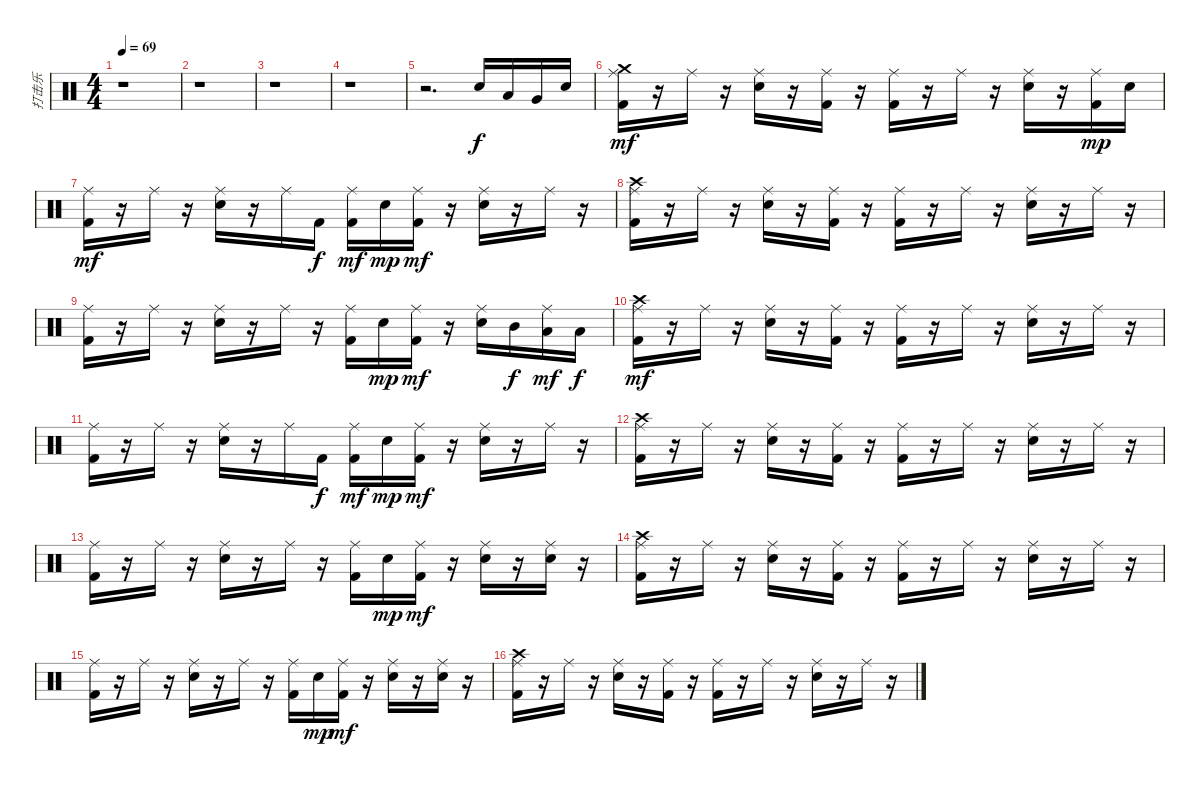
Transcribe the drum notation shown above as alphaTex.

\track ("打击乐" "打击乐") {instrument percussion}
\staff {score}
\articulation defaults
\ts (4 4)
\tempo 69
\clef neutral
\ks c
r.1{dy f} |
r.1 |
r.1 |
r.1 |
r.2{d} "Electric Snare (hit)".16 "Low Tom (hit)".16 "Very Low Tom (hit)".16 "Electric Snare (hit)".16 |
("Ride (middle)" "Crash medium (hit)" "Kick (hit) 2").16{dy mf} r.16 "Ride (middle)".16 r.16 ("Ride (middle)" "Electric Snare (hit)").16 r.16 ("Ride (middle)" "Kick (hit) 2").16 r.16 ("Ride (middle)" "Kick (hit) 2").16 r.16 "Ride (middle)".16 r.16 ("Ride (middle)" "Electric Snare (hit)").16 r.16 ("Ride (middle)" "Kick (hit) 2").16{dy mp} "Electric Snare (hit)".16 |
("Kick (hit) 2" "Ride (middle)").16{dy mf} r.16 "Ride (middle)".16 r.16 ("Electric Snare (hit)" "Ride (middle)").16 r.16 "Ride (middle)".16 "Kick (hit) 2".16{dy f} ("Kick (hit) 2" "Ride (middle)").16{dy mf} "Electric Snare (hit)".16{dy mp} ("Kick (hit) 2" "Ride (middle)").16{dy mf} r.16 ("Electric Snare (hit)" "Ride (middle)").16 r.16 "Ride (middle)".16 r.16 |
("Crash high (hit)" "Kick (hit) 2" "Ride (middle)").16 r.16 "Ride (middle)".16 r.16 ("Electric Snare (hit)" "Ride (middle)").16 r.16 ("Kick (hit) 2" "Ride (middle)").16 r.16 ("Kick (hit) 2" "Ride (middle)").16 r.16 "Ride (middle)".16 r.16 ("Electric Snare (hit)" "Ride (middle)").16 r.16 "Ride (middle)".16 r.16 |
("Kick (hit) 2" "Ride (middle)").16 r.16 "Ride (middle)".16 r.16 ("Electric Snare (hit)" "Ride (middle)").16 r.16 "Ride (middle)".16 r.16 ("Kick (hit) 2" "Ride (middle)").16 "Electric Snare (hit)".16{dy mp} ("Kick (hit) 2" "Ride (middle)").16{dy mf} r.16 ("Electric Snare (hit)" "Ride (middle)").16 "Mid Tom (hit)".16{dy f} ("Low Tom (hit)" "Ride (middle)").16{dy mf} "Low Floor Tom (hit)".16{dy f} |
("Crash high (hit)" "Ride (middle)" "Kick (hit) 2").16{dy mf} r.16 "Ride (middle)".16 r.16 ("Ride (middle)" "Electric Snare (hit)").16 r.16 ("Ride (middle)" "Kick (hit) 2").16 r.16 ("Ride (middle)" "Kick (hit) 2").16 r.16 "Ride (middle)".16 r.16 ("Ride (middle)" "Electric Snare (hit)").16 r.16 "Ride (middle)".16 r.16 |
("Kick (hit) 2" "Ride (middle)").16 r.16 "Ride (middle)".16 r.16 ("Electric Snare (hit)" "Ride (middle)").16 r.16 "Ride (middle)".16 "Kick (hit) 2".16{dy f} ("Kick (hit) 2" "Ride (middle)").16{dy mf} "Electric Snare (hit)".16{dy mp} ("Kick (hit) 2" "Ride (middle)").16{dy mf} r.16 ("Electric Snare (hit)" "Ride (middle)").16 r.16 "Ride (middle)".16 r.16 |
("Crash high (hit)" "Kick (hit) 2" "Ride (middle)").16 r.16 "Ride (middle)".16 r.16 ("Electric Snare (hit)" "Ride (middle)").16 r.16 ("Kick (hit) 2" "Ride (middle)").16 r.16 ("Kick (hit) 2" "Ride (middle)").16 r.16 "Ride (middle)".16 r.16 ("Electric Snare (hit)" "Ride (middle)").16 r.16 "Ride (middle)".16 r.16 |
("Kick (hit) 2" "Ride (middle)").16 r.16 "Ride (middle)".16 r.16 ("Electric Snare (hit)" "Ride (middle)").16 r.16 "Ride (middle)".16 r.16 ("Kick (hit) 2" "Ride (middle)").16 "Electric Snare (hit)".16{dy mp} ("Kick (hit) 2" "Ride (middle)").16{dy mf} r.16 ("Electric Snare (hit)" "Ride (middle)").16 r.16 ("Electric Snare (hit)" "Ride (middle)").16 r.16 |
("Crash high (hit)" "Kick (hit) 2" "Ride (middle)").16 r.16 "Ride (middle)".16 r.16 ("Electric Snare (hit)" "Ride (middle)").16 r.16 ("Kick (hit) 2" "Ride (middle)").16 r.16 ("Kick (hit) 2" "Ride (middle)").16 r.16 "Ride (middle)".16 r.16 ("Electric Snare (hit)" "Ride (middle)").16 r.16 "Ride (middle)".16 r.16 |
("Kick (hit) 2" "Ride (middle)").16 r.16 "Ride (middle)".16 r.16 ("Electric Snare (hit)" "Ride (middle)").16 r.16 "Ride (middle)".16 r.16 ("Kick (hit) 2" "Ride (middle)").16 "Electric Snare (hit)".16{dy mp} ("Kick (hit) 2" "Ride (middle)").16{dy mf} r.16 ("Electric Snare (hit)" "Ride (middle)").16 r.16 ("Electric Snare (hit)" "Ride (middle)").16 r.16 |
("Crash high (hit)" "Kick (hit) 2" "Ride (middle)").16 r.16 "Ride (middle)".16 r.16 ("Electric Snare (hit)" "Ride (middle)").16 r.16 ("Kick (hit) 2" "Ride (middle)").16 r.16 ("Kick (hit) 2" "Ride (middle)").16 r.16 "Ride (middle)".16 r.16 ("Electric Snare (hit)" "Ride (middle)").16 r.16 "Ride (middle)".16 r.16
